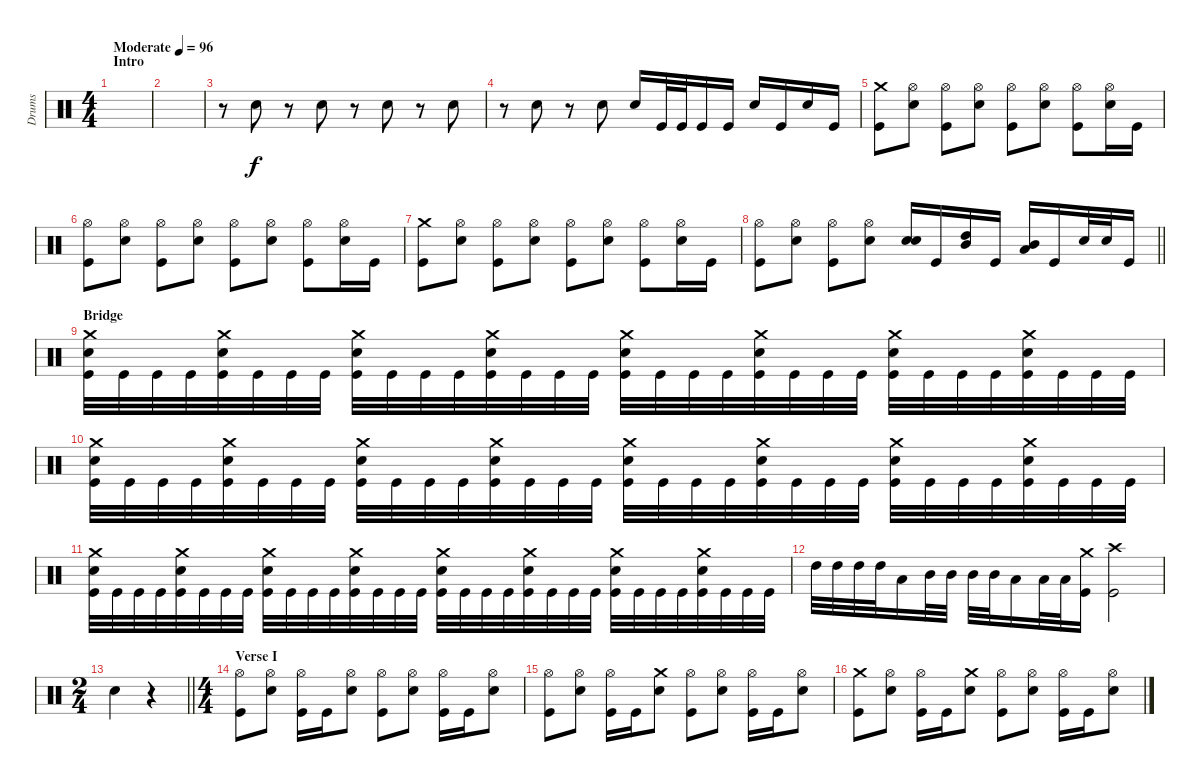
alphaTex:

\track ("Drums" "Drums") {instrument percussion}
\staff {score}
\articulation defaults
\ts (4 4)
\section ("" "Intro")
\tempo (96 "Moderate")
\clef neutral
\ks c
|
|
r.8 "Electric Snare (hit)".8 r.8 "Electric Snare (hit)".8 r.8 "Electric Snare (hit)".8 r.8 "Electric Snare (hit)".8 |
r.8 "Electric Snare (hit)".8 r.8 "Electric Snare (hit)".8 "Electric Snare (hit)".16 "Kick (hit)".32 "Kick (hit)".32 "Kick (hit)".16 "Kick (hit)".16 "Electric Snare (hit)".16 "Kick (hit)".16 "Electric Snare (hit)".16 "Kick (hit)".16 |
("Crash medium (hit)" "Kick (hit)").8 ("Hi-Hat (open)" "Electric Snare (hit)").8 ("Hi-Hat (open)" "Kick (hit)").8 ("Hi-Hat (open)" "Electric Snare (hit)").8 ("Hi-Hat (open)" "Kick (hit)").8 ("Hi-Hat (open)" "Electric Snare (hit)").8 ("Hi-Hat (open)" "Kick (hit)").8 ("Hi-Hat (open)" "Electric Snare (hit)").16 "Kick (hit)".16 |
("Hi-Hat (open)" "Kick (hit)").8 ("Hi-Hat (open)" "Electric Snare (hit)").8 ("Hi-Hat (open)" "Kick (hit)").8 ("Hi-Hat (open)" "Electric Snare (hit)").8 ("Hi-Hat (open)" "Kick (hit)").8 ("Hi-Hat (open)" "Electric Snare (hit)").8 ("Hi-Hat (open)" "Kick (hit)").8 ("Hi-Hat (open)" "Electric Snare (hit)").16 "Kick (hit)".16 |
("Crash medium (hit)" "Kick (hit)").8 ("Hi-Hat (open)" "Electric Snare (hit)").8 ("Hi-Hat (open)" "Kick (hit)").8 ("Hi-Hat (open)" "Electric Snare (hit)").8 ("Hi-Hat (open)" "Kick (hit)").8 ("Hi-Hat (open)" "Electric Snare (hit)").8 ("Hi-Hat (open)" "Kick (hit)").8 ("Hi-Hat (open)" "Electric Snare (hit)").16 "Kick (hit)".16 |
\barLineRight lightlight
("Hi-Hat (open)" "Kick (hit)").8 ("Hi-Hat (open)" "Electric Snare (hit)").8 ("Hi-Hat (open)" "Kick (hit)").8 ("Hi-Hat (open)" "Electric Snare (hit)").8 ("Electric Snare (hit)" "Electric Snare (hit)").16{bd 60} "Kick (hit)".16 ("High Tom (hit)" "Mid Tom (hit)").16{bd 60} "Kick (hit)".16 ("Mid Tom (hit)" "Low Tom (hit)").16{bd 60} "Kick (hit)".16 "Electric Snare (hit)".32 "Electric Snare (hit)".32 "Kick (hit)".16 |
\section ("" "Bridge")
("Crash medium (hit)" "Electric Snare (hit)" "Kick (hit)").32 "Kick (hit)".32 "Kick (hit)".32 "Kick (hit)".32 ("Crash medium (hit)" "Electric Snare (hit)" "Kick (hit)").32 "Kick (hit)".32 "Kick (hit)".32 "Kick (hit)".32 ("Crash medium (hit)" "Electric Snare (hit)" "Kick (hit)").32 "Kick (hit)".32 "Kick (hit)".32 "Kick (hit)".32 ("Crash medium (hit)" "Electric Snare (hit)" "Kick (hit)").32 "Kick (hit)".32 "Kick (hit)".32 "Kick (hit)".32 ("Crash medium (hit)" "Electric Snare (hit)" "Kick (hit)").32 "Kick (hit)".32 "Kick (hit)".32 "Kick (hit)".32 ("Crash medium (hit)" "Electric Snare (hit)" "Kick (hit)").32 "Kick (hit)".32 "Kick (hit)".32 "Kick (hit)".32 ("Crash medium (hit)" "Electric Snare (hit)" "Kick (hit)").32 "Kick (hit)".32 "Kick (hit)".32 "Kick (hit)".32 ("Crash medium (hit)" "Electric Snare (hit)" "Kick (hit)").32 "Kick (hit)".32 "Kick (hit)".32 "Kick (hit)".32 |
("Crash medium (hit)" "Electric Snare (hit)" "Kick (hit)").32 "Kick (hit)".32 "Kick (hit)".32 "Kick (hit)".32 ("Crash medium (hit)" "Electric Snare (hit)" "Kick (hit)").32 "Kick (hit)".32 "Kick (hit)".32 "Kick (hit)".32 ("Crash medium (hit)" "Electric Snare (hit)" "Kick (hit)").32 "Kick (hit)".32 "Kick (hit)".32 "Kick (hit)".32 ("Crash medium (hit)" "Electric Snare (hit)" "Kick (hit)").32 "Kick (hit)".32 "Kick (hit)".32 "Kick (hit)".32 ("Crash medium (hit)" "Electric Snare (hit)" "Kick (hit)").32 "Kick (hit)".32 "Kick (hit)".32 "Kick (hit)".32 ("Crash medium (hit)" "Electric Snare (hit)" "Kick (hit)").32 "Kick (hit)".32 "Kick (hit)".32 "Kick (hit)".32 ("Crash medium (hit)" "Electric Snare (hit)" "Kick (hit)").32 "Kick (hit)".32 "Kick (hit)".32 "Kick (hit)".32 ("Crash medium (hit)" "Electric Snare (hit)" "Kick (hit)").32 "Kick (hit)".32 "Kick (hit)".32 "Kick (hit)".32 |
("Crash medium (hit)" "Electric Snare (hit)" "Kick (hit)").32 "Kick (hit)".32 "Kick (hit)".32 "Kick (hit)".32 ("Crash medium (hit)" "Electric Snare (hit)" "Kick (hit)").32 "Kick (hit)".32 "Kick (hit)".32 "Kick (hit)".32 ("Crash medium (hit)" "Electric Snare (hit)" "Kick (hit)").32 "Kick (hit)".32 "Kick (hit)".32 "Kick (hit)".32 ("Crash medium (hit)" "Electric Snare (hit)" "Kick (hit)").32 "Kick (hit)".32 "Kick (hit)".32 "Kick (hit)".32 ("Crash medium (hit)" "Electric Snare (hit)" "Kick (hit)").32 "Kick (hit)".32 "Kick (hit)".32 "Kick (hit)".32 ("Crash medium (hit)" "Electric Snare (hit)" "Kick (hit)").32 "Kick (hit)".32 "Kick (hit)".32 "Kick (hit)".32 ("Crash medium (hit)" "Electric Snare (hit)" "Kick (hit)").32 "Kick (hit)".32 "Kick (hit)".32 "Kick (hit)".32 ("Crash medium (hit)" "Electric Snare (hit)" "Kick (hit)").32 "Kick (hit)".32 "Kick (hit)".32 "Kick (hit)".32 |
"High Tom (hit)".32 "High Tom (hit)".32 "High Tom (hit)".32 "High Tom (hit)".32 "Low Tom (hit)".16 "Mid Tom (hit)".32 "Mid Tom (hit)".32 "Mid Tom (hit)".32 "Mid Tom (hit)".32 "Low Tom (hit)".16 "Low Tom (hit)".32 "Low Tom (hit)".32 ("Crash medium (hit)" "Kick (hit)").16 ("Crash high (hit)" "Kick (hit)").2 |
\ts (2 4)
\barLineRight lightlight "Electric Snare (hit)".4
r.4 |
\ts (4 4)
\section ("" "Verse I")
("Hi-Hat (open)" "Kick (hit)").8 ("Hi-Hat (open)" "Electric Snare (hit)").8 ("Hi-Hat (open)" "Kick (hit)").16 "Kick (hit)".16 ("Hi-Hat (open)" "Electric Snare (hit)").8 ("Hi-Hat (open)" "Kick (hit)").8 ("Hi-Hat (open)" "Electric Snare (hit)").8 ("Hi-Hat (open)" "Kick (hit)").16 "Kick (hit)".16 ("Hi-Hat (open)" "Electric Snare (hit)").8 |
("Hi-Hat (open)" "Kick (hit)").8 ("Hi-Hat (open)" "Electric Snare (hit)").8 ("Hi-Hat (open)" "Kick (hit)").16 "Kick (hit)".16 ("Crash medium (hit)" "Electric Snare (hit)").8 ("Hi-Hat (open)" "Kick (hit)").8 ("Hi-Hat (open)" "Electric Snare (hit)").8 ("Hi-Hat (open)" "Kick (hit)").16 "Kick (hit)".16 ("Hi-Hat (open)" "Electric Snare (hit)").8 |
("Crash medium (hit)" "Kick (hit)").8 ("Hi-Hat (open)" "Electric Snare (hit)").8 ("Hi-Hat (open)" "Kick (hit)").16 "Kick (hit)".16 ("Crash medium (hit)" "Electric Snare (hit)").8 ("Hi-Hat (open)" "Kick (hit)").8 ("Hi-Hat (open)" "Electric Snare (hit)").8 ("Hi-Hat (open)" "Kick (hit)").16 "Kick (hit)".16 ("Hi-Hat (open)" "Electric Snare (hit)").8
